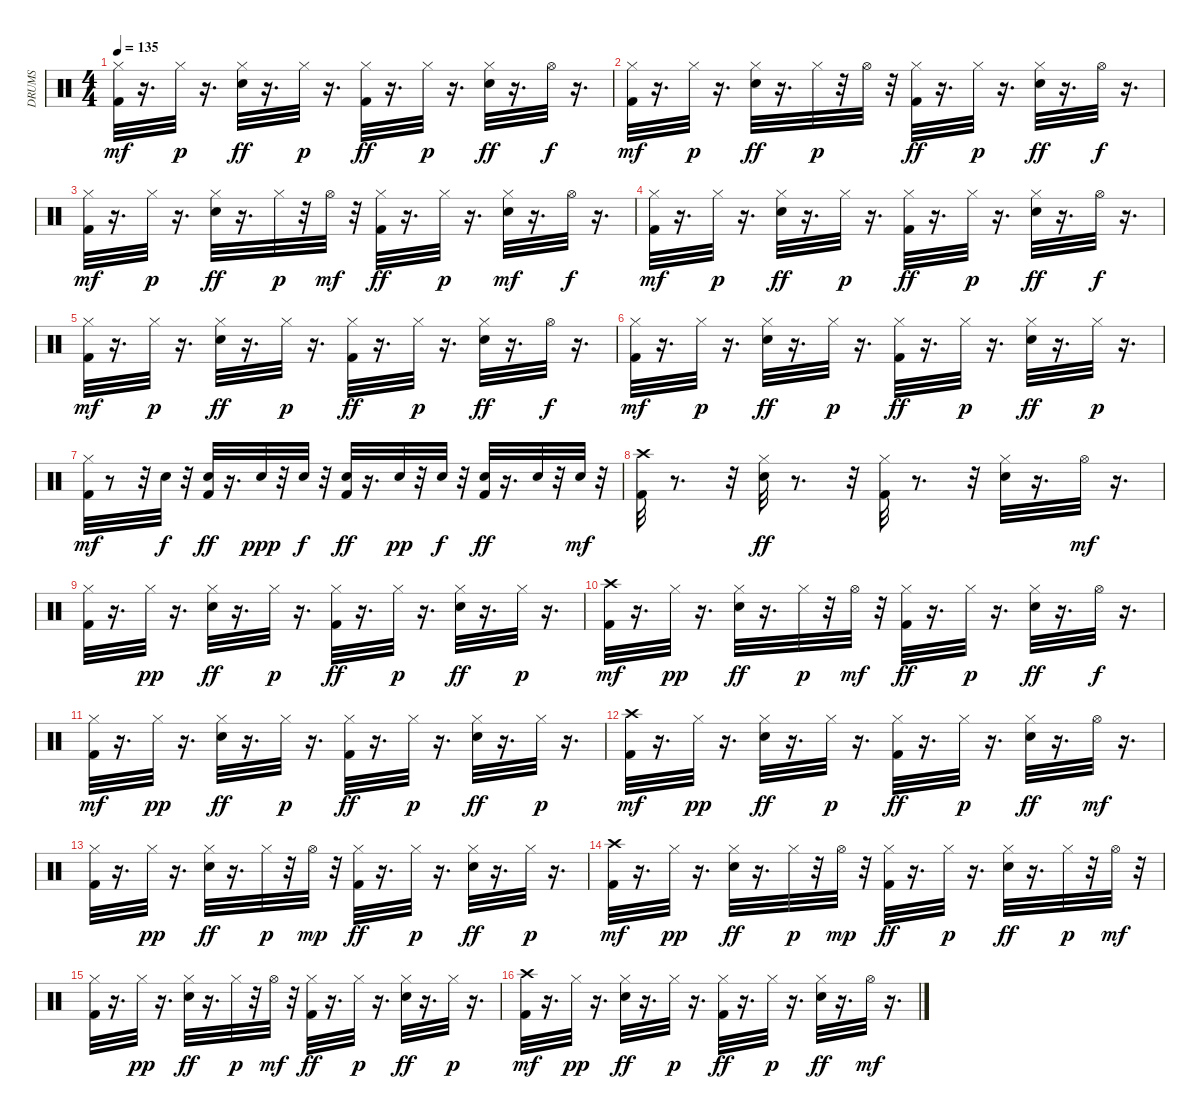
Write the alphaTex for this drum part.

\track ("DRUMS" "DRUMS") {instrument percussion}
\staff {score}
\articulation defaults
\ts (4 4)
\tempo 135
\clef neutral
\ks c
("Kick (hit) 2" "Hi-Hat (closed)").32{dy mf} r.16{d} "Hi-Hat (closed)".32{dy p} r.16{d} ("Hi-Hat (closed)" "Electric Snare (hit)").32{dy ff} r.16{d} "Hi-Hat (closed)".32{dy p} r.16{d} ("Kick (hit) 2" "Hi-Hat (closed)").32{dy ff} r.16{d} "Hi-Hat (closed)".32{dy p} r.16{d} ("Hi-Hat (closed)" "Electric Snare (hit)").32{dy ff} r.16{d} "Hi-Hat (open)".32{dy f} r.16{d} |
("Kick (hit) 2" "Hi-Hat (closed)").32{dy mf} r.16{d} "Hi-Hat (closed)".32{dy p} r.16{d} ("Hi-Hat (closed)" "Electric Snare (hit)").32{dy ff} r.16{d} "Hi-Hat (closed)".32{dy p} r.32 "Hi-Hat (open)".32 r.32 ("Kick (hit) 2" "Hi-Hat (closed)").32{dy ff} r.16{d} "Hi-Hat (closed)".32{dy p} r.16{d} ("Hi-Hat (closed)" "Electric Snare (hit)").32{dy ff} r.16{d} "Hi-Hat (open)".32{dy f} r.16{d} |
("Kick (hit) 2" "Hi-Hat (closed)").32{dy mf} r.16{d} "Hi-Hat (closed)".32{dy p} r.16{d} ("Hi-Hat (closed)" "Electric Snare (hit)").32{dy ff} r.16{d} "Hi-Hat (closed)".32{dy p} r.32 "Hi-Hat (open)".32{dy mf} r.32 ("Kick (hit) 2" "Hi-Hat (closed)").32{dy ff} r.16{d} "Hi-Hat (closed)".32{dy p} r.16{d} ("Hi-Hat (closed)" "Electric Snare (hit)").32{dy mf} r.16{d} "Hi-Hat (open)".32{dy f} r.16{d} |
("Kick (hit) 2" "Hi-Hat (closed)").32{dy mf} r.16{d} "Hi-Hat (closed)".32{dy p} r.16{d} ("Hi-Hat (closed)" "Electric Snare (hit)").32{dy ff} r.16{d} "Hi-Hat (closed)".32{dy p} r.16{d} ("Kick (hit) 2" "Hi-Hat (closed)").32{dy ff} r.16{d} "Hi-Hat (closed)".32{dy p} r.16{d} ("Hi-Hat (closed)" "Electric Snare (hit)").32{dy ff} r.16{d} "Hi-Hat (open)".32{dy f} r.16{d} |
("Kick (hit) 2" "Hi-Hat (closed)").32{dy mf} r.16{d} "Hi-Hat (closed)".32{dy p} r.16{d} ("Hi-Hat (closed)" "Electric Snare (hit)").32{dy ff} r.16{d} "Hi-Hat (closed)".32{dy p} r.16{d} ("Kick (hit) 2" "Hi-Hat (closed)").32{dy ff} r.16{d} "Hi-Hat (closed)".32{dy p} r.16{d} ("Hi-Hat (closed)" "Electric Snare (hit)").32{dy ff} r.16{d} "Hi-Hat (open)".32{dy f} r.16{d} |
("Kick (hit) 2" "Hi-Hat (closed)").32{dy mf} r.16{d} "Hi-Hat (closed)".32{dy p} r.16{d} ("Hi-Hat (closed)" "Electric Snare (hit)").32{dy ff} r.16{d} "Hi-Hat (closed)".32{dy p} r.16{d} ("Kick (hit) 2" "Hi-Hat (closed)").32{dy ff} r.16{d} "Hi-Hat (closed)".32{dy p} r.16{d} ("Hi-Hat (closed)" "Electric Snare (hit)").32{dy ff} r.16{d} "Hi-Hat (closed)".32{dy p} r.16{d} |
("Kick (hit) 2" "Hi-Hat (closed)").32{dy mf} r.8 r.32 "Electric Snare (hit)".32{dy f} r.32 ("Electric Snare (hit)" "Kick (hit) 2").32{dy ff} r.16{d} "Electric Snare (hit)".32{dy ppp} r.32 "Electric Snare (hit)".32{dy f} r.32 ("Electric Snare (hit)" "Kick (hit) 2").32{dy ff} r.16{d} "Electric Snare (hit)".32{dy pp} r.32 "Electric Snare (hit)".32{dy f} r.32 ("Electric Snare (hit)" "Kick (hit) 2").32{dy ff} r.16{d} "Electric Snare (hit)".32 r.32 "Electric Snare (hit)".32{dy mf} r.32 |
("Kick (hit) 2" "Crash high (hit)").32 r.8{d} r.32 ("Hi-Hat (closed)" "Electric Snare (hit)").32{dy ff} r.8{d} r.32 ("Hi-Hat (closed)" "Kick (hit) 2").32 r.8{d} r.32 ("Electric Snare (hit)" "Hi-Hat (closed)").32 r.16{d} "Hi-Hat (open)".32{dy mf} r.16{d} |
("Kick (hit) 2" "Hi-Hat (closed)").32 r.16{d} "Hi-Hat (closed)".32{dy pp} r.16{d} ("Hi-Hat (closed)" "Electric Snare (hit)").32{dy ff} r.16{d} "Hi-Hat (closed)".32{dy p} r.16{d} ("Hi-Hat (closed)" "Kick (hit) 2").32{dy ff} r.16{d} "Hi-Hat (closed)".32{dy p} r.16{d} ("Electric Snare (hit)" "Hi-Hat (closed)").32{dy ff} r.16{d} "Hi-Hat (closed)".32{dy p} r.16{d} |
("Kick (hit) 2" "Crash high (hit)").32{dy mf} r.16{d} "Hi-Hat (closed)".32{dy pp} r.16{d} ("Hi-Hat (closed)" "Electric Snare (hit)").32{dy ff} r.16{d} "Hi-Hat (closed)".32{dy p} r.32 "Hi-Hat (open)".32{dy mf} r.32 ("Hi-Hat (closed)" "Kick (hit) 2").32{dy ff} r.16{d} "Hi-Hat (closed)".32{dy p} r.16{d} ("Electric Snare (hit)" "Hi-Hat (closed)").32{dy ff} r.16{d} "Hi-Hat (open)".32{dy f} r.16{d} |
("Kick (hit) 2" "Hi-Hat (closed)").32{dy mf} r.16{d} "Hi-Hat (closed)".32{dy pp} r.16{d} ("Hi-Hat (closed)" "Electric Snare (hit)").32{dy ff} r.16{d} "Hi-Hat (closed)".32{dy p} r.16{d} ("Hi-Hat (closed)" "Kick (hit) 2").32{dy ff} r.16{d} "Hi-Hat (closed)".32{dy p} r.16{d} ("Electric Snare (hit)" "Hi-Hat (closed)").32{dy ff} r.16{d} "Hi-Hat (closed)".32{dy p} r.16{d} |
("Kick (hit) 2" "Crash high (hit)").32{dy mf} r.16{d} "Hi-Hat (closed)".32{dy pp} r.16{d} ("Hi-Hat (closed)" "Electric Snare (hit)").32{dy ff} r.16{d} "Hi-Hat (closed)".32{dy p} r.16{d} ("Hi-Hat (closed)" "Kick (hit) 2").32{dy ff} r.16{d} "Hi-Hat (closed)".32{dy p} r.16{d} ("Electric Snare (hit)" "Hi-Hat (closed)").32{dy ff} r.16{d} "Hi-Hat (open)".32{dy mf} r.16{d} |
("Kick (hit) 2" "Hi-Hat (closed)").32 r.16{d} "Hi-Hat (closed)".32{dy pp} r.16{d} ("Hi-Hat (closed)" "Electric Snare (hit)").32{dy ff} r.16{d} "Hi-Hat (closed)".32{dy p} r.32 "Hi-Hat (open)".32{dy mp} r.32 ("Hi-Hat (closed)" "Kick (hit) 2").32{dy ff} r.16{d} "Hi-Hat (closed)".32{dy p} r.16{d} ("Electric Snare (hit)" "Hi-Hat (closed)").32{dy ff} r.16{d} "Hi-Hat (closed)".32{dy p} r.16{d} |
("Kick (hit) 2" "Crash high (hit)").32{dy mf} r.16{d} "Hi-Hat (closed)".32{dy pp} r.16{d} ("Hi-Hat (closed)" "Electric Snare (hit)").32{dy ff} r.16{d} "Hi-Hat (closed)".32{dy p} r.32 "Hi-Hat (open)".32{dy mp} r.32 ("Hi-Hat (closed)" "Kick (hit) 2").32{dy ff} r.16{d} "Hi-Hat (closed)".32{dy p} r.16{d} ("Electric Snare (hit)" "Hi-Hat (closed)").32{dy ff} r.16{d} "Hi-Hat (closed)".32{dy p} r.32 "Hi-Hat (open)".32{dy mf} r.32 |
("Kick (hit) 2" "Hi-Hat (closed)").32 r.16{d} "Hi-Hat (closed)".32{dy pp} r.16{d} ("Hi-Hat (closed)" "Electric Snare (hit)").32{dy ff} r.16{d} "Hi-Hat (closed)".32{dy p} r.32 "Hi-Hat (open)".32{dy mf} r.32 ("Hi-Hat (closed)" "Kick (hit) 2").32{dy ff} r.16{d} "Hi-Hat (closed)".32{dy p} r.16{d} ("Electric Snare (hit)" "Hi-Hat (closed)").32{dy ff} r.16{d} "Hi-Hat (closed)".32{dy p} r.16{d} |
("Kick (hit) 2" "Crash high (hit)").32{dy mf} r.16{d} "Hi-Hat (closed)".32{dy pp} r.16{d} ("Hi-Hat (closed)" "Electric Snare (hit)").32{dy ff} r.16{d} "Hi-Hat (closed)".32{dy p} r.16{d} ("Hi-Hat (closed)" "Kick (hit) 2").32{dy ff} r.16{d} "Hi-Hat (closed)".32{dy p} r.16{d} ("Electric Snare (hit)" "Hi-Hat (closed)").32{dy ff} r.16{d} "Hi-Hat (open)".32{dy mf} r.16{d}
